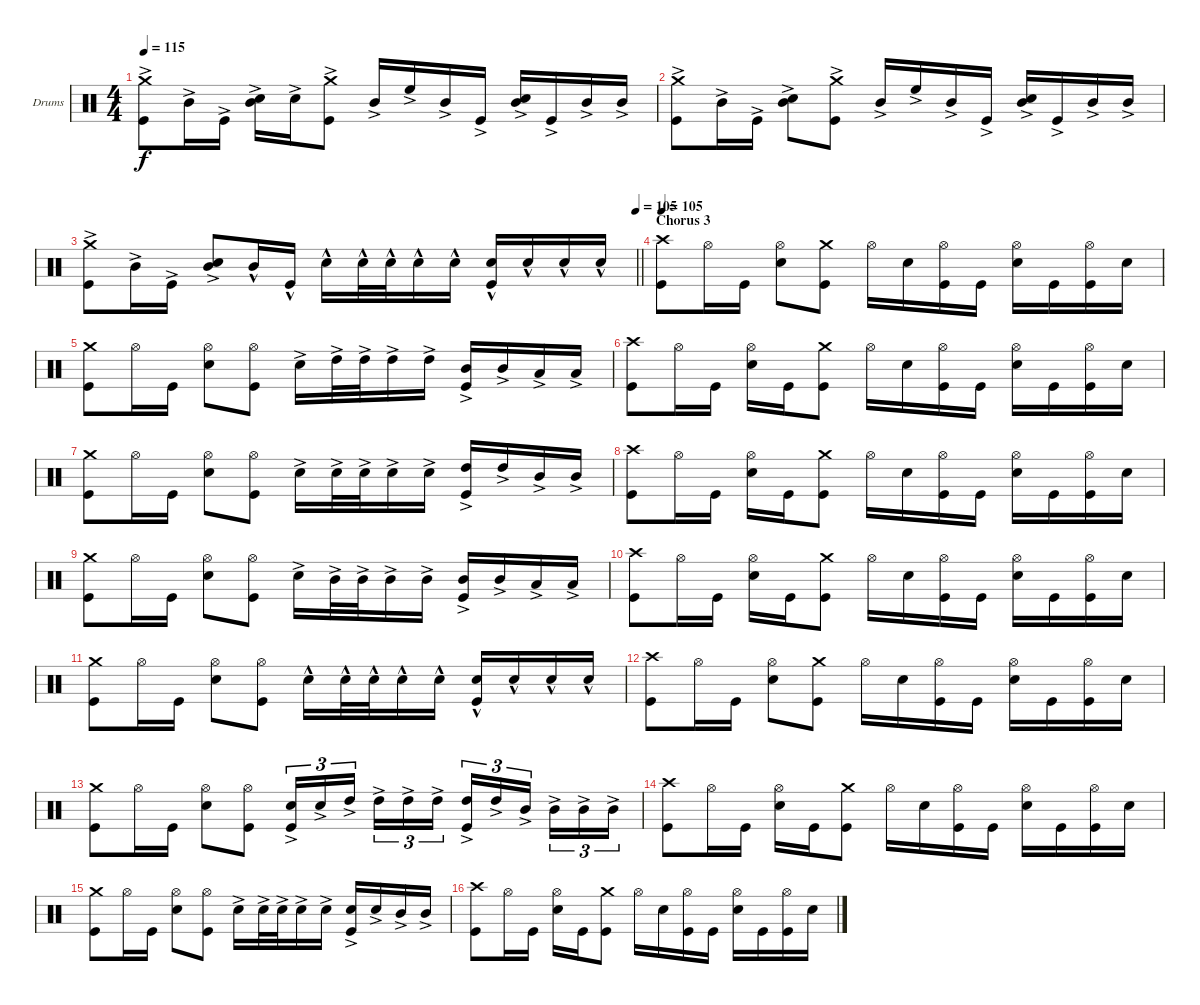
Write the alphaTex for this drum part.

\bracketExtendMode groupsimilarinstruments
\firstSystemTrackNameOrientation horizontal
\otherSystemsTrackNameOrientation horizontal
\track ("Drumkit" "Drums") {instrument percussion}
\staff {score}
\articulation defaults
\ts (4 4)
\tempo 115
\clef neutral
\ks c
("Crash medium (hit)" "Kick (hit)"{ac}).8{dy f} "Mid Tom (hit)"{ac}.16 "Kick (hit)"{ac}.16 ("Mid Tom (hit)"{ac} "Snare (hit) 2"{ac}).16 "Snare (hit) 2"{ac}.16 ("Crash medium (hit)" "Kick (hit)"{ac}).8 "Mid Tom (hit)"{ac}.16 "High Floor Tom (hit)"{ac}.16 "Mid Tom (hit)"{ac}.16 "Kick (hit)"{ac}.16 ("Mid Tom (hit)"{ac} "Snare (hit) 2"{ac}).16 "Kick (hit)"{ac}.16 "Mid Tom (hit)"{ac}.16 "Mid Tom (hit)"{ac}.16 |
("Crash medium (hit)" "Kick (hit)"{ac}).8 "Mid Tom (hit)"{ac}.16 "Kick (hit)"{ac}.16 ("Mid Tom (hit)"{ac} "Snare (hit) 2"{ac}).8 ("Crash medium (hit)" "Kick (hit)"{ac}).8 "Mid Tom (hit)"{ac}.16 "High Floor Tom (hit)"{ac}.16 "Mid Tom (hit)"{ac}.16 "Kick (hit)"{ac}.16 ("Mid Tom (hit)"{ac} "Snare (hit) 2"{ac}).16 "Kick (hit)"{ac}.16 "Mid Tom (hit)"{ac}.16 "Mid Tom (hit)"{ac}.16 |
\tempo (105 1)
\barLineRight lightlight
("Crash medium (hit)" "Kick (hit)"{ac}).8 "Mid Tom (hit)"{ac}.16 "Kick (hit)"{ac}.16 ("Mid Tom (hit)"{ac} "Snare (hit) 2"{ac}).8 "Mid Tom (hit)"{hac}.16 "Kick (hit)"{hac}.16 "Snare (hit) 2"{hac}.16 "Snare (hit) 2"{hac}.32 "Snare (hit) 2"{hac}.32 "Snare (hit) 2"{hac}.16 "Snare (hit) 2"{hac}.16 ("Snare (hit) 2"{hac} "Kick (hit)"{hac}).16 "Snare (hit) 2"{hac}.16 "Snare (hit) 2"{hac}.16 "Snare (hit) 2"{hac}.16 |
\section ("" "Chorus 3")
\tempo 105
("Crash high (hit)" "Kick (hit)").8 "Hi-Hat (open)".16 "Kick (hit)".16 ("Hi-Hat (open)" "Snare (hit) 2").8 ("Crash medium (hit)" "Kick (hit)").8 "Hi-Hat (open)".16 "Snare (hit) 2".16 ("Hi-Hat (open)" "Kick (hit)").16 "Kick (hit)".16 ("Hi-Hat (open)" "Snare (hit) 2").16 "Kick (hit)".16 ("Hi-Hat (open)" "Kick (hit)").16 "Snare (hit) 2".16 |
("Crash medium (hit)" "Kick (hit)").8 "Hi-Hat (open)".16 "Kick (hit)".16 ("Hi-Hat (open)" "Snare (hit) 2").8 ("Hi-Hat (open)" "Kick (hit)").8 "Snare (hit) 2"{ac}.16 "High Tom (hit)"{ac}.32 "High Tom (hit)"{ac}.32 "High Tom (hit)"{ac}.16 "High Tom (hit)"{ac}.16 ("Mid Tom (hit)"{ac} "Kick (hit)").16 "Mid Tom (hit)"{ac}.16 "Low Tom (hit)"{ac}.16 "Low Tom (hit)"{ac}.16 |
("Crash high (hit)" "Kick (hit)").8 "Hi-Hat (open)".16 "Kick (hit)".16 ("Hi-Hat (open)" "Snare (hit) 2").16 "Kick (hit)".16 ("Crash medium (hit)" "Kick (hit)").8 "Hi-Hat (open)".16 "Snare (hit) 2".16 ("Hi-Hat (open)" "Kick (hit)").16 "Kick (hit)".16 ("Hi-Hat (open)" "Snare (hit) 2").16 "Kick (hit)".16 ("Hi-Hat (open)" "Kick (hit)").16 "Snare (hit) 2".16 |
("Crash medium (hit)" "Kick (hit)").8 "Hi-Hat (open)".16 "Kick (hit)".16 ("Hi-Hat (open)" "Snare (hit) 2").8 ("Hi-Hat (open)" "Kick (hit)").8 "Snare (hit) 2"{ac}.16 "Snare (hit) 2"{ac}.32 "Snare (hit) 2"{ac}.32 "Snare (hit) 2"{ac}.16 "Snare (hit) 2"{ac}.16 ("High Tom (hit)"{ac} "Kick (hit)").16 "High Tom (hit)"{ac}.16 "Mid Tom (hit)"{ac}.16 "Mid Tom (hit)"{ac}.16 |
("Crash high (hit)" "Kick (hit)").8 "Hi-Hat (open)".16 "Kick (hit)".16 ("Hi-Hat (open)" "Snare (hit) 2").16 "Kick (hit)".16 ("Crash medium (hit)" "Kick (hit)").8 "Hi-Hat (open)".16 "Snare (hit) 2".16 ("Hi-Hat (open)" "Kick (hit)").16 "Kick (hit)".16 ("Hi-Hat (open)" "Snare (hit) 2").16 "Kick (hit)".16 ("Hi-Hat (open)" "Kick (hit)").16 "Snare (hit) 2".16 |
("Crash medium (hit)" "Kick (hit)").8 "Hi-Hat (open)".16 "Kick (hit)".16 ("Hi-Hat (open)" "Snare (hit) 2").8 ("Hi-Hat (open)" "Kick (hit)").8 "Snare (hit) 2"{ac}.16 "Mid Tom (hit)"{ac}.32 "Mid Tom (hit)"{ac}.32 "Mid Tom (hit)"{ac}.16 "Mid Tom (hit)"{ac}.16 ("Mid Tom (hit)"{ac} "Kick (hit)").16 "Mid Tom (hit)"{ac}.16 "Low Tom (hit)"{ac}.16 "Low Tom (hit)"{ac}.16 |
("Crash high (hit)" "Kick (hit)").8 "Hi-Hat (open)".16 "Kick (hit)".16 ("Hi-Hat (open)" "Snare (hit) 2").16 "Kick (hit)".16 ("Crash medium (hit)" "Kick (hit)").8 "Hi-Hat (open)".16 "Snare (hit) 2".16 ("Hi-Hat (open)" "Kick (hit)").16 "Kick (hit)".16 ("Hi-Hat (open)" "Snare (hit) 2").16 "Kick (hit)".16 ("Hi-Hat (open)" "Kick (hit)").16 "Snare (hit) 2".16 |
("Crash medium (hit)" "Kick (hit)").8 "Hi-Hat (open)".16 "Kick (hit)".16 ("Hi-Hat (open)" "Snare (hit) 2").8 ("Hi-Hat (open)" "Kick (hit)").8 "Snare (hit) 2"{hac}.16 "Snare (hit) 2"{hac}.32 "Snare (hit) 2"{hac}.32 "Snare (hit) 2"{hac}.16 "Snare (hit) 2"{hac}.16 ("Snare (hit) 2"{hac} "Kick (hit)").16 "Snare (hit) 2"{hac}.16 "Snare (hit) 2"{hac}.16 "Snare (hit) 2"{hac}.16 |
\tempo (105 hide)
("Crash high (hit)" "Kick (hit)").8 "Hi-Hat (open)".16 "Kick (hit)".16 ("Hi-Hat (open)" "Snare (hit) 2").8 ("Crash medium (hit)" "Kick (hit)").8 "Hi-Hat (open)".16 "Snare (hit) 2".16 ("Hi-Hat (open)" "Kick (hit)").16 "Kick (hit)".16 ("Hi-Hat (open)" "Snare (hit) 2").16 "Kick (hit)".16 ("Hi-Hat (open)" "Kick (hit)").16 "Snare (hit) 2".16 |
("Crash medium (hit)" "Kick (hit)").8 "Hi-Hat (open)".16 "Kick (hit)".16 ("Hi-Hat (open)" "Snare (hit) 2").8 ("Hi-Hat (open)" "Kick (hit)").8 ("Snare (hit) 2"{ac} "Kick (hit)").16{tu (3 2)} "Snare (hit) 2"{ac}.16{tu (3 2)} "High Tom (hit)"{ac}.16{tu (3 2)} "High Tom (hit)"{ac}.16{tu (3 2)} "High Tom (hit)"{ac}.16{tu (3 2)} "High Tom (hit)"{ac}.16{tu (3 2)} ("High Tom (hit)"{ac} "Kick (hit)").16{tu (3 2)} "High Tom (hit)"{ac}.16{tu (3 2)} "Mid Tom (hit)"{ac}.16{tu (3 2)} "Mid Tom (hit)"{ac}.16{tu (3 2)} "Mid Tom (hit)"{ac}.16{tu (3 2)} "Mid Tom (hit)"{ac}.16{tu (3 2)} |
("Crash high (hit)" "Kick (hit)").8 "Hi-Hat (open)".16 "Kick (hit)".16 ("Hi-Hat (open)" "Snare (hit) 2").16 "Kick (hit)".16 ("Crash medium (hit)" "Kick (hit)").8 "Hi-Hat (open)".16 "Snare (hit) 2".16 ("Hi-Hat (open)" "Kick (hit)").16 "Kick (hit)".16 ("Hi-Hat (open)" "Snare (hit) 2").16 "Kick (hit)".16 ("Hi-Hat (open)" "Kick (hit)").16 "Snare (hit) 2".16 |
("Crash medium (hit)" "Kick (hit)").8 "Hi-Hat (open)".16 "Kick (hit)".16 ("Hi-Hat (open)" "Snare (hit) 2").8 ("Hi-Hat (open)" "Kick (hit)").8 "Snare (hit) 2"{ac}.16 "Snare (hit) 2"{ac}.32 "Snare (hit) 2"{ac}.32 "Snare (hit) 2"{ac}.16 "Snare (hit) 2"{ac}.16 ("Snare (hit) 2"{ac} "Kick (hit)").16 "Snare (hit) 2"{ac}.16 "Mid Tom (hit)"{ac}.16 "Mid Tom (hit)"{ac}.16 |
("Crash high (hit)" "Kick (hit)").8 "Hi-Hat (open)".16 "Kick (hit)".16 ("Hi-Hat (open)" "Snare (hit) 2").16 "Kick (hit)".16 ("Crash medium (hit)" "Kick (hit)").8 "Hi-Hat (open)".16 "Snare (hit) 2".16 ("Hi-Hat (open)" "Kick (hit)").16 "Kick (hit)".16 ("Hi-Hat (open)" "Snare (hit) 2").16 "Kick (hit)".16 ("Hi-Hat (open)" "Kick (hit)").16 "Snare (hit) 2".16
